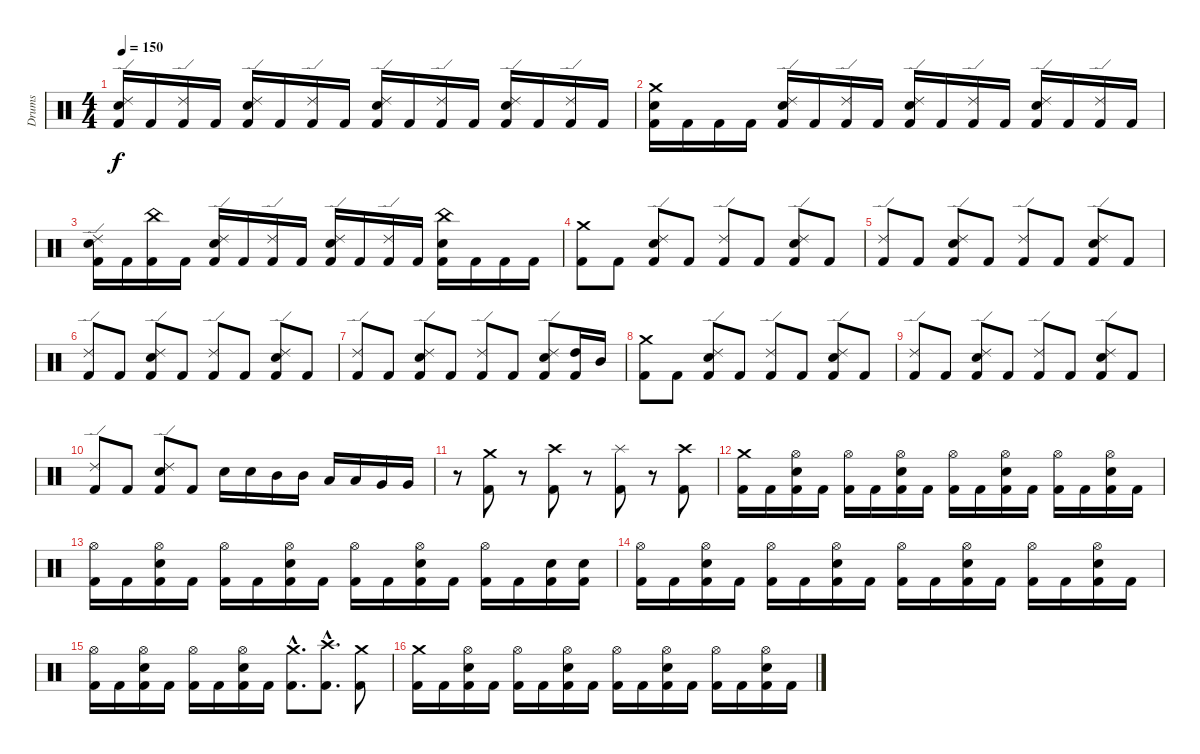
\track ("Drums" "Drums") {instrument percussion}
\staff {score}
\articulation defaults
\ts (4 4)
\tempo 150
\clef neutral
\ks c
("Ride (edge) 2" "Electric Snare (hit)" "Kick (hit) 2").16{dy f} "Kick (hit) 2".16 ("Ride (edge) 2" "Kick (hit) 2").16 "Kick (hit) 2".16 ("Ride (edge) 2" "Electric Snare (hit)" "Kick (hit) 2").16 "Kick (hit) 2".16 ("Ride (edge) 2" "Kick (hit) 2").16 "Kick (hit) 2".16 ("Ride (edge) 2" "Electric Snare (hit)" "Kick (hit) 2").16 "Kick (hit) 2".16 ("Ride (edge) 2" "Kick (hit) 2").16 "Kick (hit) 2".16 ("Ride (edge) 2" "Electric Snare (hit)" "Kick (hit) 2").16 "Kick (hit) 2".16 ("Ride (edge) 2" "Kick (hit) 2").16 "Kick (hit) 2".16 |
("Crash medium (hit)" "Electric Snare (hit)" "Kick (hit) 2").16 "Kick (hit) 2".16 "Kick (hit) 2".16 "Kick (hit) 2".16 ("Ride (edge) 2" "Electric Snare (hit)" "Kick (hit) 2").16 "Kick (hit) 2".16 ("Ride (edge) 2" "Kick (hit) 2").16 "Kick (hit) 2".16 ("Ride (edge) 2" "Electric Snare (hit)" "Kick (hit) 2").16 "Kick (hit) 2".16 ("Ride (edge) 2" "Kick (hit) 2").16 "Kick (hit) 2".16 ("Ride (edge) 2" "Electric Snare (hit)" "Kick (hit) 2").16 "Kick (hit) 2".16 ("Ride (edge) 2" "Kick (hit) 2").16 "Kick (hit) 2".16 |
("Ride (edge) 2" "Electric Snare (hit)" "Kick (hit) 2").16 "Kick (hit) 2".16 ("China (hit)" "Kick (hit) 2").16 "Kick (hit) 2".16 ("Ride (edge) 2" "Electric Snare (hit)" "Kick (hit) 2").16 "Kick (hit) 2".16 ("Ride (edge) 2" "Kick (hit) 2").16 "Kick (hit) 2".16 ("Ride (edge) 2" "Electric Snare (hit)" "Kick (hit) 2").16 "Kick (hit) 2".16 ("Ride (edge) 2" "Kick (hit) 2").16 "Kick (hit) 2".16 ("China (hit)" "Electric Snare (hit)" "Kick (hit) 2").16 "Kick (hit) 2".16 "Kick (hit) 2".16 "Kick (hit) 2".16 |
("Kick (hit) 2" "Crash medium (hit)").8 "Kick (hit) 2".8 ("Electric Snare (hit)" "Kick (hit) 2" "Ride (edge) 2").8 "Kick (hit) 2".8 ("Kick (hit) 2" "Ride (edge) 2").8 "Kick (hit) 2".8 ("Electric Snare (hit)" "Kick (hit) 2" "Ride (edge) 2").8 "Kick (hit) 2".8 |
("Ride (edge) 2" "Kick (hit) 2").8 "Kick (hit) 2".8 ("Electric Snare (hit)" "Kick (hit) 2" "Ride (edge) 2").8 "Kick (hit) 2".8 ("Kick (hit) 2" "Ride (edge) 2").8 "Kick (hit) 2".8 ("Electric Snare (hit)" "Kick (hit) 2" "Ride (edge) 2").8 "Kick (hit) 2".8 |
("Ride (edge) 2" "Kick (hit) 2").8 "Kick (hit) 2".8 ("Electric Snare (hit)" "Kick (hit) 2" "Ride (edge) 2").8 "Kick (hit) 2".8 ("Kick (hit) 2" "Ride (edge) 2").8 "Kick (hit) 2".8 ("Electric Snare (hit)" "Kick (hit) 2" "Ride (edge) 2").8 "Kick (hit) 2".8 |
("Ride (edge) 2" "Kick (hit) 2").8 "Kick (hit) 2".8 ("Electric Snare (hit)" "Kick (hit) 2" "Ride (edge) 2").8 "Kick (hit) 2".8 ("Kick (hit) 2" "Ride (edge) 2").8 "Kick (hit) 2".8 ("Electric Snare (hit)" "Kick (hit) 2" "Ride (edge) 2").8 ("High Tom (hit)" "Kick (hit) 2").16 "Mid Tom (hit)".16 |
("Kick (hit) 2" "Crash medium (hit)").8 "Kick (hit) 2".8 ("Electric Snare (hit)" "Kick (hit) 2" "Ride (edge) 2").8 "Kick (hit) 2".8 ("Kick (hit) 2" "Ride (edge) 2").8 "Kick (hit) 2".8 ("Electric Snare (hit)" "Kick (hit) 2" "Ride (edge) 2").8 "Kick (hit) 2".8 |
("Ride (edge) 2" "Kick (hit) 2").8 "Kick (hit) 2".8 ("Electric Snare (hit)" "Kick (hit) 2" "Ride (edge) 2").8 "Kick (hit) 2".8 ("Kick (hit) 2" "Ride (edge) 2").8 "Kick (hit) 2".8 ("Electric Snare (hit)" "Kick (hit) 2" "Ride (edge) 2").8 "Kick (hit) 2".8 |
("Ride (edge) 2" "Kick (hit) 2").8 "Kick (hit) 2".8 ("Electric Snare (hit)" "Kick (hit) 2" "Ride (edge) 2").8 "Kick (hit) 2".8 "Electric Snare (hit)".16 "Electric Snare (hit)".16 "Mid Tom (hit)".16 "Mid Tom (hit)".16 "Low Tom (hit)".16 "Low Tom (hit)".16 "Very Low Tom (hit)".16 "Very Low Tom (hit)".16 |
r.8 ("Crash medium (hit)" "Kick (hit) 2").8 r.8 ("Crash high (hit)" "Kick (hit) 2").8 r.8 ("Splash (hit)" "Kick (hit) 2").8 r.8 ("Crash high (hit)" "Kick (hit) 2").8 |
("Crash medium (hit)" "Kick (hit) 2").16 "Kick (hit) 2".16 ("Hi-Hat (open)" "Electric Snare (hit)" "Kick (hit) 2").16 "Kick (hit) 2".16 ("Hi-Hat (open)" "Kick (hit) 2").16 "Kick (hit) 2".16 ("Hi-Hat (open)" "Electric Snare (hit)" "Kick (hit) 2").16 "Kick (hit) 2".16 ("Hi-Hat (open)" "Kick (hit) 2").16 "Kick (hit) 2".16 ("Hi-Hat (open)" "Electric Snare (hit)" "Kick (hit) 2").16 "Kick (hit) 2".16 ("Hi-Hat (open)" "Kick (hit) 2").16 "Kick (hit) 2".16 ("Hi-Hat (open)" "Electric Snare (hit)" "Kick (hit) 2").16 "Kick (hit) 2".16 |
("Hi-Hat (open)" "Kick (hit) 2").16 "Kick (hit) 2".16 ("Hi-Hat (open)" "Electric Snare (hit)" "Kick (hit) 2").16 "Kick (hit) 2".16 ("Hi-Hat (open)" "Kick (hit) 2").16 "Kick (hit) 2".16 ("Hi-Hat (open)" "Electric Snare (hit)" "Kick (hit) 2").16 "Kick (hit) 2".16 ("Hi-Hat (open)" "Kick (hit) 2").16 "Kick (hit) 2".16 ("Hi-Hat (open)" "Electric Snare (hit)" "Kick (hit) 2").16 "Kick (hit) 2".16 ("Hi-Hat (open)" "Kick (hit) 2").16 "Kick (hit) 2".16 ("Electric Snare (hit)" "Kick (hit) 2").16 ("Electric Snare (hit)" "Kick (hit) 2").16 |
("Hi-Hat (open)" "Kick (hit) 2").16 "Kick (hit) 2".16 ("Hi-Hat (open)" "Electric Snare (hit)" "Kick (hit) 2").16 "Kick (hit) 2".16 ("Hi-Hat (open)" "Kick (hit) 2").16 "Kick (hit) 2".16 ("Hi-Hat (open)" "Electric Snare (hit)" "Kick (hit) 2").16 "Kick (hit) 2".16 ("Hi-Hat (open)" "Kick (hit) 2").16 "Kick (hit) 2".16 ("Hi-Hat (open)" "Electric Snare (hit)" "Kick (hit) 2").16 "Kick (hit) 2".16 ("Hi-Hat (open)" "Kick (hit) 2").16 "Kick (hit) 2".16 ("Hi-Hat (open)" "Electric Snare (hit)" "Kick (hit) 2").16 "Kick (hit) 2".16 |
("Hi-Hat (open)" "Kick (hit) 2").16 "Kick (hit) 2".16 ("Hi-Hat (open)" "Electric Snare (hit)" "Kick (hit) 2").16 "Kick (hit) 2".16 ("Hi-Hat (open)" "Kick (hit) 2").16 "Kick (hit) 2".16 ("Hi-Hat (open)" "Electric Snare (hit)" "Kick (hit) 2").16 "Kick (hit) 2".16 ("Crash medium (hit)" "Kick (hit) 2"{hac}).8{d} ("Crash high (hit)" "Kick (hit) 2"{hac}).8{d} ("Crash medium (hit)" "Kick (hit) 2").8 |
("Crash medium (hit)" "Kick (hit) 2").16 "Kick (hit) 2".16 ("Hi-Hat (open)" "Electric Snare (hit)" "Kick (hit) 2").16 "Kick (hit) 2".16 ("Hi-Hat (open)" "Kick (hit) 2").16 "Kick (hit) 2".16 ("Hi-Hat (open)" "Electric Snare (hit)" "Kick (hit) 2").16 "Kick (hit) 2".16 ("Hi-Hat (open)" "Kick (hit) 2").16 "Kick (hit) 2".16 ("Hi-Hat (open)" "Electric Snare (hit)" "Kick (hit) 2").16 "Kick (hit) 2".16 ("Hi-Hat (open)" "Kick (hit) 2").16 "Kick (hit) 2".16 ("Hi-Hat (open)" "Electric Snare (hit)" "Kick (hit) 2").16 "Kick (hit) 2".16
